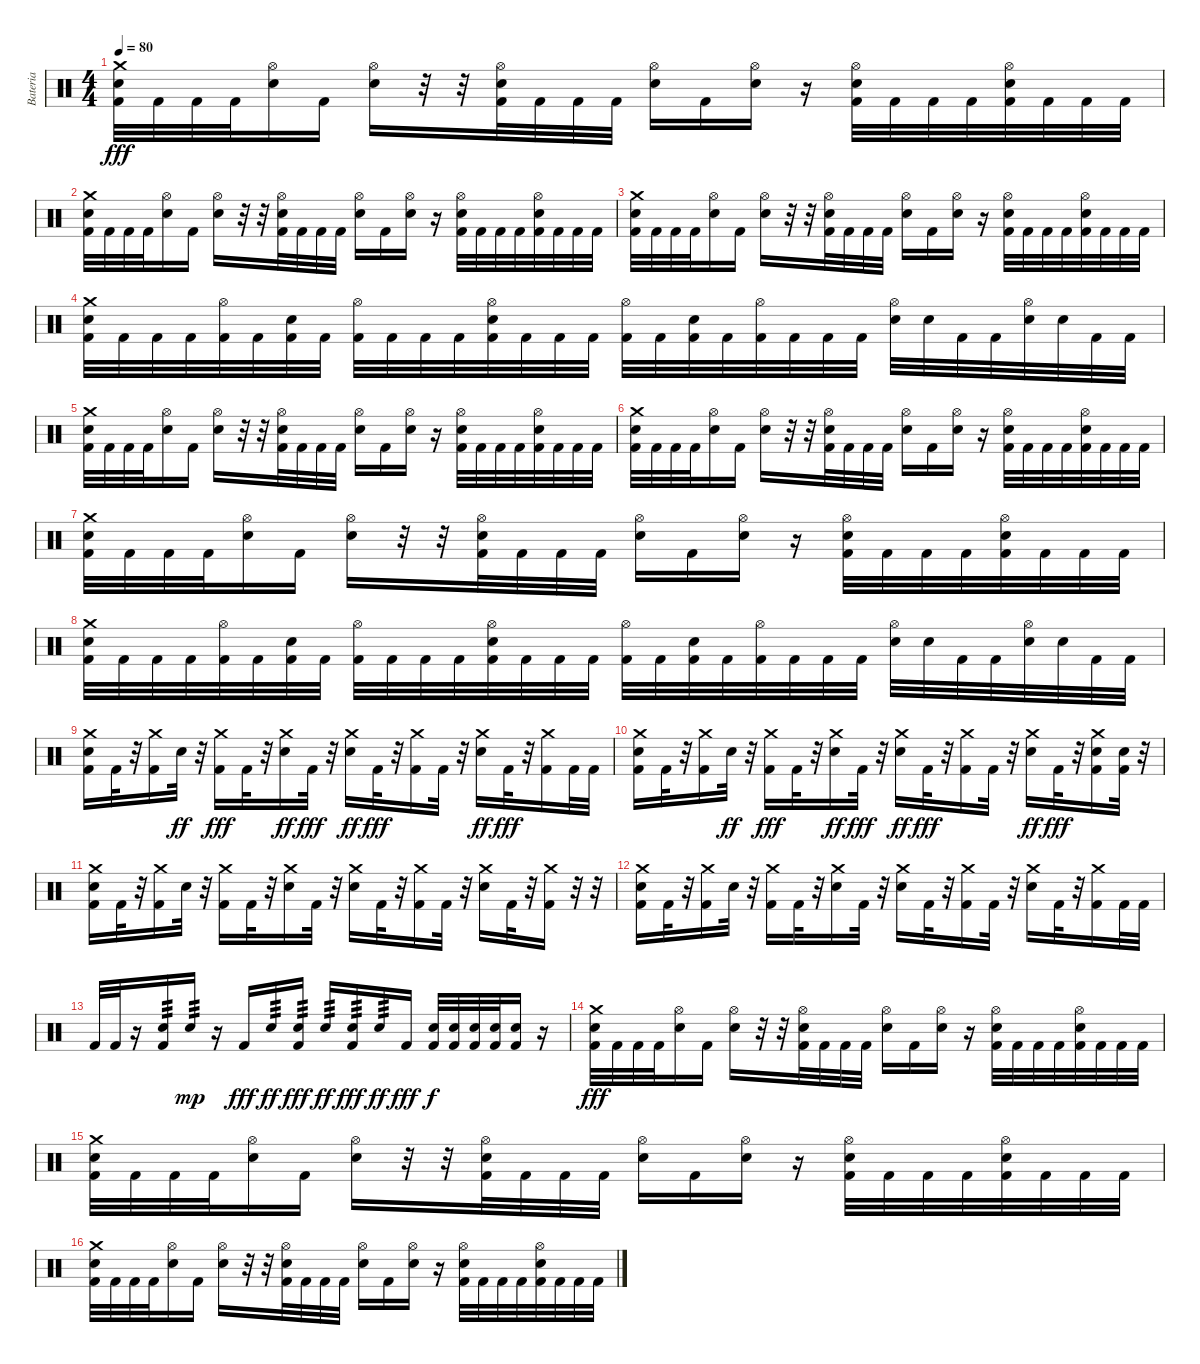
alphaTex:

\track ("Bateria" "Bateria") {instrument percussion}
\staff {score}
\articulation defaults
\ts (4 4)
\tempo 80
\clef neutral
\ks c
("Crash medium (hit)" "Electric Snare (hit)" "Kick (hit) 2").32{dy fff} "Kick (hit) 2".32 "Kick (hit) 2".32 "Kick (hit) 2".32 ("Hi-Hat (open)" "Electric Snare (hit)").16 "Kick (hit) 2".16 ("Hi-Hat (open)" "Electric Snare (hit)").16 r.32 r.32 ("Hi-Hat (open)" "Electric Snare (hit)" "Kick (hit) 2").32 "Kick (hit) 2".32 "Kick (hit) 2".32 "Kick (hit) 2".32 ("Hi-Hat (open)" "Electric Snare (hit)").16 "Kick (hit) 2".16 ("Hi-Hat (open)" "Electric Snare (hit)").16 r.16 ("Hi-Hat (open)" "Electric Snare (hit)" "Kick (hit) 2").32 "Kick (hit) 2".32 "Kick (hit) 2".32 "Kick (hit) 2".32 ("Hi-Hat (open)" "Electric Snare (hit)" "Kick (hit) 2").32 "Kick (hit) 2".32 "Kick (hit) 2".32 "Kick (hit) 2".32 |
("Crash medium (hit)" "Electric Snare (hit)" "Kick (hit) 2").32 "Kick (hit) 2".32 "Kick (hit) 2".32 "Kick (hit) 2".32 ("Hi-Hat (open)" "Electric Snare (hit)").16 "Kick (hit) 2".16 ("Hi-Hat (open)" "Electric Snare (hit)").16 r.32 r.32 ("Hi-Hat (open)" "Electric Snare (hit)" "Kick (hit) 2").32 "Kick (hit) 2".32 "Kick (hit) 2".32 "Kick (hit) 2".32 ("Hi-Hat (open)" "Electric Snare (hit)").16 "Kick (hit) 2".16 ("Hi-Hat (open)" "Electric Snare (hit)").16 r.16 ("Hi-Hat (open)" "Electric Snare (hit)" "Kick (hit) 2").32 "Kick (hit) 2".32 "Kick (hit) 2".32 "Kick (hit) 2".32 ("Hi-Hat (open)" "Electric Snare (hit)" "Kick (hit) 2").32 "Kick (hit) 2".32 "Kick (hit) 2".32 "Kick (hit) 2".32 |
("Crash medium (hit)" "Electric Snare (hit)" "Kick (hit) 2").32 "Kick (hit) 2".32 "Kick (hit) 2".32 "Kick (hit) 2".32 ("Hi-Hat (open)" "Electric Snare (hit)").16 "Kick (hit) 2".16 ("Hi-Hat (open)" "Electric Snare (hit)").16 r.32 r.32 ("Hi-Hat (open)" "Electric Snare (hit)" "Kick (hit) 2").32 "Kick (hit) 2".32 "Kick (hit) 2".32 "Kick (hit) 2".32 ("Hi-Hat (open)" "Electric Snare (hit)").16 "Kick (hit) 2".16 ("Hi-Hat (open)" "Electric Snare (hit)").16 r.16 ("Hi-Hat (open)" "Electric Snare (hit)" "Kick (hit) 2").32 "Kick (hit) 2".32 "Kick (hit) 2".32 "Kick (hit) 2".32 ("Hi-Hat (open)" "Electric Snare (hit)" "Kick (hit) 2").32 "Kick (hit) 2".32 "Kick (hit) 2".32 "Kick (hit) 2".32 |
("Crash medium (hit)" "Electric Snare (hit)" "Kick (hit) 2").32 "Kick (hit) 2".32 "Kick (hit) 2".32 "Kick (hit) 2".32 ("Hi-Hat (open)" "Kick (hit) 2").32 "Kick (hit) 2".32 ("Electric Snare (hit)" "Kick (hit) 2").32 "Kick (hit) 2".32 ("Hi-Hat (open)" "Kick (hit) 2").32 "Kick (hit) 2".32 "Kick (hit) 2".32 "Kick (hit) 2".32 ("Hi-Hat (open)" "Electric Snare (hit)" "Kick (hit) 2").32 "Kick (hit) 2".32 "Kick (hit) 2".32 "Kick (hit) 2".32 ("Hi-Hat (open)" "Kick (hit) 2").32 "Kick (hit) 2".32 ("Electric Snare (hit)" "Kick (hit) 2").32 "Kick (hit) 2".32 ("Hi-Hat (open)" "Kick (hit) 2").32 "Kick (hit) 2".32 "Kick (hit) 2".32 "Kick (hit) 2".32 ("Hi-Hat (open)" "Electric Snare (hit)").32 "Electric Snare (hit)".32 "Kick (hit) 2".32 "Kick (hit) 2".32 ("Hi-Hat (open)" "Electric Snare (hit)").32 "Electric Snare (hit)".32 "Kick (hit) 2".32 "Kick (hit) 2".32 |
("Crash medium (hit)" "Electric Snare (hit)" "Kick (hit) 2").32 "Kick (hit) 2".32 "Kick (hit) 2".32 "Kick (hit) 2".32 ("Hi-Hat (open)" "Electric Snare (hit)").16 "Kick (hit) 2".16 ("Hi-Hat (open)" "Electric Snare (hit)").16 r.32 r.32 ("Hi-Hat (open)" "Electric Snare (hit)" "Kick (hit) 2").32 "Kick (hit) 2".32 "Kick (hit) 2".32 "Kick (hit) 2".32 ("Hi-Hat (open)" "Electric Snare (hit)").16 "Kick (hit) 2".16 ("Hi-Hat (open)" "Electric Snare (hit)").16 r.16 ("Hi-Hat (open)" "Electric Snare (hit)" "Kick (hit) 2").32 "Kick (hit) 2".32 "Kick (hit) 2".32 "Kick (hit) 2".32 ("Hi-Hat (open)" "Electric Snare (hit)" "Kick (hit) 2").32 "Kick (hit) 2".32 "Kick (hit) 2".32 "Kick (hit) 2".32 |
("Crash medium (hit)" "Electric Snare (hit)" "Kick (hit) 2").32 "Kick (hit) 2".32 "Kick (hit) 2".32 "Kick (hit) 2".32 ("Hi-Hat (open)" "Electric Snare (hit)").16 "Kick (hit) 2".16 ("Hi-Hat (open)" "Electric Snare (hit)").16 r.32 r.32 ("Hi-Hat (open)" "Electric Snare (hit)" "Kick (hit) 2").32 "Kick (hit) 2".32 "Kick (hit) 2".32 "Kick (hit) 2".32 ("Hi-Hat (open)" "Electric Snare (hit)").16 "Kick (hit) 2".16 ("Hi-Hat (open)" "Electric Snare (hit)").16 r.16 ("Hi-Hat (open)" "Electric Snare (hit)" "Kick (hit) 2").32 "Kick (hit) 2".32 "Kick (hit) 2".32 "Kick (hit) 2".32 ("Hi-Hat (open)" "Electric Snare (hit)" "Kick (hit) 2").32 "Kick (hit) 2".32 "Kick (hit) 2".32 "Kick (hit) 2".32 |
("Crash medium (hit)" "Electric Snare (hit)" "Kick (hit) 2").32 "Kick (hit) 2".32 "Kick (hit) 2".32 "Kick (hit) 2".32 ("Hi-Hat (open)" "Electric Snare (hit)").16 "Kick (hit) 2".16 ("Hi-Hat (open)" "Electric Snare (hit)").16 r.32 r.32 ("Hi-Hat (open)" "Electric Snare (hit)" "Kick (hit) 2").32 "Kick (hit) 2".32 "Kick (hit) 2".32 "Kick (hit) 2".32 ("Hi-Hat (open)" "Electric Snare (hit)").16 "Kick (hit) 2".16 ("Hi-Hat (open)" "Electric Snare (hit)").16 r.16 ("Hi-Hat (open)" "Electric Snare (hit)" "Kick (hit) 2").32 "Kick (hit) 2".32 "Kick (hit) 2".32 "Kick (hit) 2".32 ("Hi-Hat (open)" "Electric Snare (hit)" "Kick (hit) 2").32 "Kick (hit) 2".32 "Kick (hit) 2".32 "Kick (hit) 2".32 |
("Crash medium (hit)" "Electric Snare (hit)" "Kick (hit) 2").32 "Kick (hit) 2".32 "Kick (hit) 2".32 "Kick (hit) 2".32 ("Hi-Hat (open)" "Kick (hit) 2").32 "Kick (hit) 2".32 ("Electric Snare (hit)" "Kick (hit) 2").32 "Kick (hit) 2".32 ("Hi-Hat (open)" "Kick (hit) 2").32 "Kick (hit) 2".32 "Kick (hit) 2".32 "Kick (hit) 2".32 ("Hi-Hat (open)" "Electric Snare (hit)" "Kick (hit) 2").32 "Kick (hit) 2".32 "Kick (hit) 2".32 "Kick (hit) 2".32 ("Hi-Hat (open)" "Kick (hit) 2").32 "Kick (hit) 2".32 ("Electric Snare (hit)" "Kick (hit) 2").32 "Kick (hit) 2".32 ("Hi-Hat (open)" "Kick (hit) 2").32 "Kick (hit) 2".32 "Kick (hit) 2".32 "Kick (hit) 2".32 ("Hi-Hat (open)" "Electric Snare (hit)").32 "Electric Snare (hit)".32 "Kick (hit) 2".32 "Kick (hit) 2".32 ("Hi-Hat (open)" "Electric Snare (hit)").32 "Electric Snare (hit)".32 "Kick (hit) 2".32 "Kick (hit) 2".32 |
("Crash medium (hit)" "Electric Snare (hit)" "Kick (hit) 2").16 "Kick (hit) 2".32 r.32 ("Crash medium (hit)" "Kick (hit) 2").16 "Electric Snare (hit)".32{dy ff} r.32 ("Crash medium (hit)" "Kick (hit) 2").16{dy fff} "Kick (hit) 2".32 r.32 ("Crash medium (hit)" "Electric Snare (hit)").16{dy ff} "Kick (hit) 2".32{dy fff} r.32 ("Crash medium (hit)" "Electric Snare (hit)").16{dy ff} "Kick (hit) 2".32{dy fff} r.32 ("Crash medium (hit)" "Kick (hit) 2").16 "Kick (hit) 2".32 r.32 ("Crash medium (hit)" "Electric Snare (hit)").16{dy ff} "Kick (hit) 2".32{dy fff} r.32 ("Crash medium (hit)" "Kick (hit) 2").16 "Kick (hit) 2".32 "Kick (hit) 2".32 |
("Crash medium (hit)" "Electric Snare (hit)" "Kick (hit) 2").16 "Kick (hit) 2".32 r.32 ("Crash medium (hit)" "Kick (hit) 2").16 "Electric Snare (hit)".32{dy ff} r.32 ("Crash medium (hit)" "Kick (hit) 2").16{dy fff} "Kick (hit) 2".32 r.32 ("Crash medium (hit)" "Electric Snare (hit)").16{dy ff} "Kick (hit) 2".32{dy fff} r.32 ("Crash medium (hit)" "Electric Snare (hit)").16{dy ff} "Kick (hit) 2".32{dy fff} r.32 ("Crash medium (hit)" "Kick (hit) 2").16 "Kick (hit) 2".32 r.32 ("Crash medium (hit)" "Electric Snare (hit)").16{dy ff} "Kick (hit) 2".32{dy fff} r.32 ("Crash medium (hit)" "Electric Snare (hit)" "Kick (hit) 2").16 ("Electric Snare (hit)" "Kick (hit) 2").32 r.32 |
("Crash medium (hit)" "Electric Snare (hit)" "Kick (hit) 2").16 "Kick (hit) 2".32 r.32 ("Crash medium (hit)" "Kick (hit) 2").16 "Electric Snare (hit)".32 r.32 ("Crash medium (hit)" "Kick (hit) 2").16 "Kick (hit) 2".32 r.32 ("Crash medium (hit)" "Electric Snare (hit)").16 "Kick (hit) 2".32 r.32 ("Crash medium (hit)" "Electric Snare (hit)").16 "Kick (hit) 2".32 r.32 ("Crash medium (hit)" "Kick (hit) 2").16 "Kick (hit) 2".32 r.32 ("Crash medium (hit)" "Electric Snare (hit)").16 "Kick (hit) 2".32 r.32 ("Crash medium (hit)" "Kick (hit) 2").16 r.32 r.32 |
("Crash medium (hit)" "Electric Snare (hit)" "Kick (hit) 2").16 "Kick (hit) 2".32 r.32 ("Crash medium (hit)" "Kick (hit) 2").16 "Electric Snare (hit)".32 r.32 ("Crash medium (hit)" "Kick (hit) 2").16 "Kick (hit) 2".32 r.32 ("Crash medium (hit)" "Electric Snare (hit)").16 "Kick (hit) 2".32 r.32 ("Crash medium (hit)" "Electric Snare (hit)").16 "Kick (hit) 2".32 r.32 ("Crash medium (hit)" "Kick (hit) 2").16 "Kick (hit) 2".32 r.32 ("Crash medium (hit)" "Electric Snare (hit)").16 "Kick (hit) 2".32 r.32 ("Crash medium (hit)" "Kick (hit) 2").16 "Kick (hit) 2".32 "Kick (hit) 2".32 |
"Kick (hit) 2".32 "Kick (hit) 2".32 r.16 ("Electric Snare (hit)" "Kick (hit) 2").16{tp 3} "Electric Snare (hit)".16{tp 3 dy mp} r.16 "Kick (hit) 2".16{dy fff} "Electric Snare (hit)".16{tp 3 dy ff} ("Electric Snare (hit)" "Kick (hit) 2").16{tp 3 dy fff} "Electric Snare (hit)".16{tp 3 dy ff} ("Electric Snare (hit)" "Kick (hit) 2").16{tp 3 dy fff} "Electric Snare (hit)".16{tp 3 dy ff} "Kick (hit) 2".16{dy fff} ("Electric Snare (hit)" "Kick (hit) 2").32{dy f} ("Electric Snare (hit)" "Kick (hit) 2").32 ("Electric Snare (hit)" "Kick (hit) 2").32 ("Electric Snare (hit)" "Kick (hit) 2").32 ("Electric Snare (hit)" "Kick (hit) 2").16 r.16 |
("Crash medium (hit)" "Electric Snare (hit)" "Kick (hit) 2").32{dy fff} "Kick (hit) 2".32 "Kick (hit) 2".32 "Kick (hit) 2".32 ("Hi-Hat (open)" "Electric Snare (hit)").16 "Kick (hit) 2".16 ("Hi-Hat (open)" "Electric Snare (hit)").16 r.32 r.32 ("Hi-Hat (open)" "Electric Snare (hit)" "Kick (hit) 2").32 "Kick (hit) 2".32 "Kick (hit) 2".32 "Kick (hit) 2".32 ("Hi-Hat (open)" "Electric Snare (hit)").16 "Kick (hit) 2".16 ("Hi-Hat (open)" "Electric Snare (hit)").16 r.16 ("Hi-Hat (open)" "Electric Snare (hit)" "Kick (hit) 2").32 "Kick (hit) 2".32 "Kick (hit) 2".32 "Kick (hit) 2".32 ("Hi-Hat (open)" "Electric Snare (hit)" "Kick (hit) 2").32 "Kick (hit) 2".32 "Kick (hit) 2".32 "Kick (hit) 2".32 |
("Crash medium (hit)" "Electric Snare (hit)" "Kick (hit) 2").32 "Kick (hit) 2".32 "Kick (hit) 2".32 "Kick (hit) 2".32 ("Hi-Hat (open)" "Electric Snare (hit)").16 "Kick (hit) 2".16 ("Hi-Hat (open)" "Electric Snare (hit)").16 r.32 r.32 ("Hi-Hat (open)" "Electric Snare (hit)" "Kick (hit) 2").32 "Kick (hit) 2".32 "Kick (hit) 2".32 "Kick (hit) 2".32 ("Hi-Hat (open)" "Electric Snare (hit)").16 "Kick (hit) 2".16 ("Hi-Hat (open)" "Electric Snare (hit)").16 r.16 ("Hi-Hat (open)" "Electric Snare (hit)" "Kick (hit) 2").32 "Kick (hit) 2".32 "Kick (hit) 2".32 "Kick (hit) 2".32 ("Hi-Hat (open)" "Electric Snare (hit)" "Kick (hit) 2").32 "Kick (hit) 2".32 "Kick (hit) 2".32 "Kick (hit) 2".32 |
("Crash medium (hit)" "Electric Snare (hit)" "Kick (hit) 2").32 "Kick (hit) 2".32 "Kick (hit) 2".32 "Kick (hit) 2".32 ("Hi-Hat (open)" "Electric Snare (hit)").16 "Kick (hit) 2".16 ("Hi-Hat (open)" "Electric Snare (hit)").16 r.32 r.32 ("Hi-Hat (open)" "Electric Snare (hit)" "Kick (hit) 2").32 "Kick (hit) 2".32 "Kick (hit) 2".32 "Kick (hit) 2".32 ("Hi-Hat (open)" "Electric Snare (hit)").16 "Kick (hit) 2".16 ("Hi-Hat (open)" "Electric Snare (hit)").16 r.16 ("Hi-Hat (open)" "Electric Snare (hit)" "Kick (hit) 2").32 "Kick (hit) 2".32 "Kick (hit) 2".32 "Kick (hit) 2".32 ("Hi-Hat (open)" "Electric Snare (hit)" "Kick (hit) 2").32 "Kick (hit) 2".32 "Kick (hit) 2".32 "Kick (hit) 2".32
